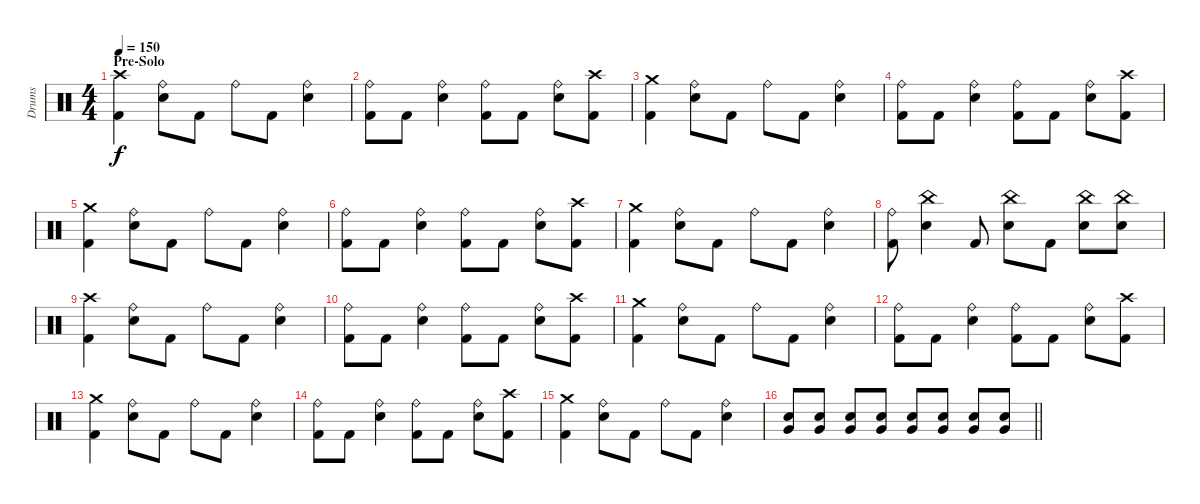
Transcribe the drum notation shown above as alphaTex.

\track ("Drums" "Drums") {instrument percussion}
\staff {score}
\articulation defaults
\ts (4 4)
\section ("" "Pre-Solo")
\tempo 150
\clef neutral
\ks c
("Crash high (hit)" "Kick (hit) 2").4{dy f} ("Ride (bell)" "Electric Snare (hit)").8 "Kick (hit) 2".8 "Ride (bell)".8 "Kick (hit) 2".8 ("Ride (bell)" "Electric Snare (hit)").4 |
("Ride (bell)" "Kick (hit) 2").8 "Kick (hit) 2".8 ("Ride (bell)" "Electric Snare (hit)").4 ("Ride (bell)" "Kick (hit) 2").8 "Kick (hit) 2".8 ("Ride (bell)" "Electric Snare (hit)").8 ("Crash high (hit)" "Kick (hit) 2").8 |
("Crash medium (hit)" "Kick (hit) 2").4 ("Ride (bell)" "Electric Snare (hit)").8 "Kick (hit) 2".8 "Ride (bell)".8 "Kick (hit) 2".8 ("Ride (bell)" "Electric Snare (hit)").4 |
("Ride (bell)" "Kick (hit) 2").8 "Kick (hit) 2".8 ("Ride (bell)" "Electric Snare (hit)").4 ("Ride (bell)" "Kick (hit) 2").8 "Kick (hit) 2".8 ("Ride (bell)" "Electric Snare (hit)").8 ("Crash high (hit)" "Kick (hit) 2").8 |
("Crash medium (hit)" "Kick (hit) 2").4 ("Ride (bell)" "Electric Snare (hit)").8 "Kick (hit) 2".8 "Ride (bell)".8 "Kick (hit) 2".8 ("Ride (bell)" "Electric Snare (hit)").4 |
("Ride (bell)" "Kick (hit) 2").8 "Kick (hit) 2".8 ("Ride (bell)" "Electric Snare (hit)").4 ("Ride (bell)" "Kick (hit) 2").8 "Kick (hit) 2".8 ("Ride (bell)" "Electric Snare (hit)").8 ("Crash high (hit)" "Kick (hit) 2").8 |
("Crash medium (hit)" "Kick (hit) 2").4 ("Ride (bell)" "Electric Snare (hit)").8 "Kick (hit) 2".8 "Ride (bell)".8 "Kick (hit) 2".8 ("Ride (bell)" "Electric Snare (hit)").4 |
("Ride (bell)" "Kick (hit) 2").8 ("China (hit)" "Electric Snare (hit)").4 "Kick (hit) 2".8 ("China (hit)" "Electric Snare (hit)").8 "Kick (hit) 2".8 ("China (hit)" "Electric Snare (hit)").8 ("China (hit)" "Electric Snare (hit)").8 |
("Crash high (hit)" "Kick (hit) 2").4 ("Ride (bell)" "Electric Snare (hit)").8 "Kick (hit) 2".8 "Ride (bell)".8 "Kick (hit) 2".8 ("Ride (bell)" "Electric Snare (hit)").4 |
("Ride (bell)" "Kick (hit) 2").8 "Kick (hit) 2".8 ("Ride (bell)" "Electric Snare (hit)").4 ("Ride (bell)" "Kick (hit) 2").8 "Kick (hit) 2".8 ("Ride (bell)" "Electric Snare (hit)").8 ("Crash high (hit)" "Kick (hit) 2").8 |
("Crash medium (hit)" "Kick (hit) 2").4 ("Ride (bell)" "Electric Snare (hit)").8 "Kick (hit) 2".8 "Ride (bell)".8 "Kick (hit) 2".8 ("Ride (bell)" "Electric Snare (hit)").4 |
("Ride (bell)" "Kick (hit) 2").8 "Kick (hit) 2".8 ("Ride (bell)" "Electric Snare (hit)").4 ("Ride (bell)" "Kick (hit) 2").8 "Kick (hit) 2".8 ("Ride (bell)" "Electric Snare (hit)").8 ("Crash high (hit)" "Kick (hit) 2").8 |
("Crash medium (hit)" "Kick (hit) 2").4 ("Ride (bell)" "Electric Snare (hit)").8 "Kick (hit) 2".8 "Ride (bell)".8 "Kick (hit) 2".8 ("Ride (bell)" "Electric Snare (hit)").4 |
("Ride (bell)" "Kick (hit) 2").8 "Kick (hit) 2".8 ("Ride (bell)" "Electric Snare (hit)").4 ("Ride (bell)" "Kick (hit) 2").8 "Kick (hit) 2".8 ("Ride (bell)" "Electric Snare (hit)").8 ("Crash high (hit)" "Kick (hit) 2").8 |
("Crash medium (hit)" "Kick (hit) 2").4 ("Ride (bell)" "Electric Snare (hit)").8 "Kick (hit) 2".8 "Ride (bell)".8 "Kick (hit) 2".8 ("Ride (bell)" "Electric Snare (hit)").4 |
\barLineRight lightlight
("Very Low Tom (hit)" "Electric Snare (hit)").8 ("Very Low Tom (hit)" "Electric Snare (hit)").8 ("Very Low Tom (hit)" "Electric Snare (hit)").8 ("Very Low Tom (hit)" "Electric Snare (hit)").8 ("Very Low Tom (hit)" "Electric Snare (hit)").8 ("Very Low Tom (hit)" "Electric Snare (hit)").8 ("Very Low Tom (hit)" "Electric Snare (hit)").8 ("Very Low Tom (hit)" "Electric Snare (hit)").8
